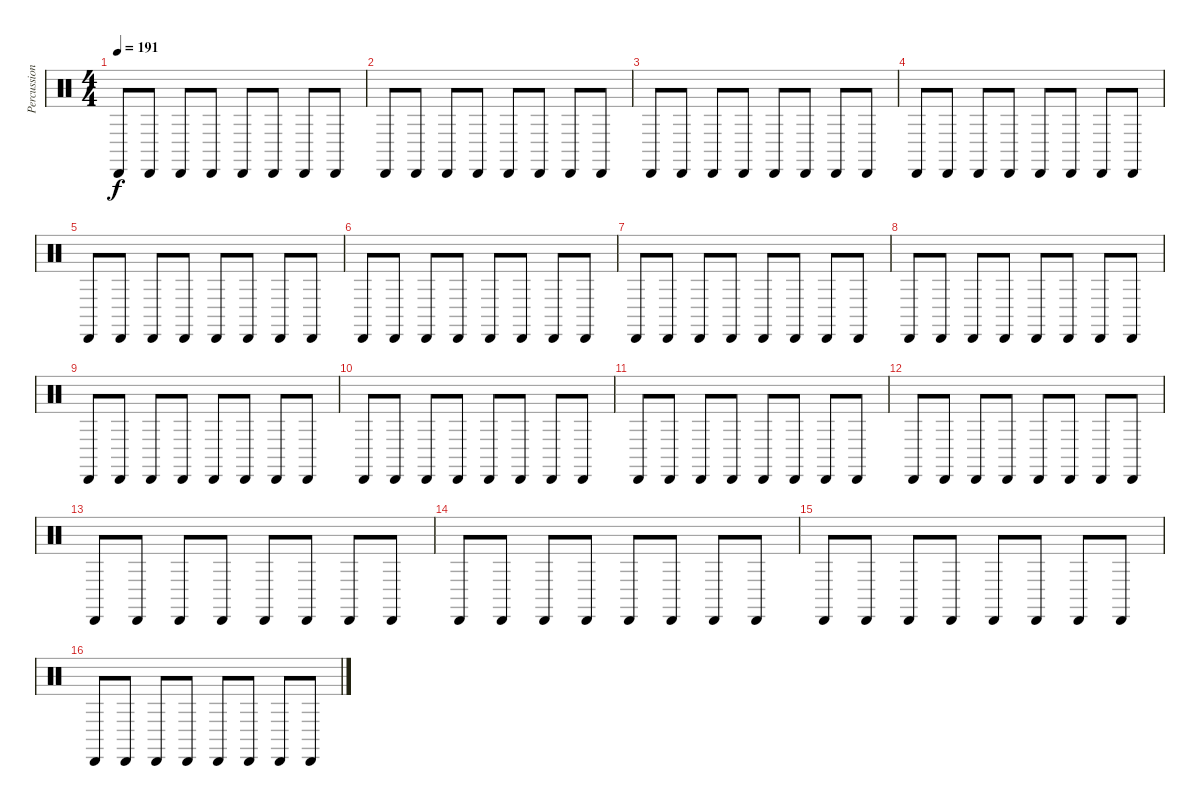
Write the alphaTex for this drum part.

\track ("Percussion" "Percussion") {instrument percussion}
\staff {score}
\articulation defaults
\ts (4 4)
\tempo 191
\clef neutral
\ks c "Cabasa (hit)".8{dy f} "Cabasa (hit)".8 "Cabasa (hit)".8 "Cabasa (hit)".8 "Cabasa (hit)".8 "Cabasa (hit)".8 "Cabasa (hit)".8 "Cabasa (hit)".8
|
"Cabasa (hit)".8 "Cabasa (hit)".8 "Cabasa (hit)".8 "Cabasa (hit)".8 "Cabasa (hit)".8 "Cabasa (hit)".8 "Cabasa (hit)".8 "Cabasa (hit)".8 |
"Cabasa (hit)".8 "Cabasa (hit)".8 "Cabasa (hit)".8 "Cabasa (hit)".8 "Cabasa (hit)".8 "Cabasa (hit)".8 "Cabasa (hit)".8 "Cabasa (hit)".8 |
"Cabasa (hit)".8 "Cabasa (hit)".8 "Cabasa (hit)".8 "Cabasa (hit)".8 "Cabasa (hit)".8 "Cabasa (hit)".8 "Cabasa (hit)".8 "Cabasa (hit)".8 |
"Cabasa (hit)".8 "Cabasa (hit)".8 "Cabasa (hit)".8 "Cabasa (hit)".8 "Cabasa (hit)".8 "Cabasa (hit)".8 "Cabasa (hit)".8 "Cabasa (hit)".8 |
"Cabasa (hit)".8 "Cabasa (hit)".8 "Cabasa (hit)".8 "Cabasa (hit)".8 "Cabasa (hit)".8 "Cabasa (hit)".8 "Cabasa (hit)".8 "Cabasa (hit)".8 |
"Cabasa (hit)".8 "Cabasa (hit)".8 "Cabasa (hit)".8 "Cabasa (hit)".8 "Cabasa (hit)".8 "Cabasa (hit)".8 "Cabasa (hit)".8 "Cabasa (hit)".8 |
"Cabasa (hit)".8 "Cabasa (hit)".8 "Cabasa (hit)".8 "Cabasa (hit)".8 "Cabasa (hit)".8 "Cabasa (hit)".8 "Cabasa (hit)".8 "Cabasa (hit)".8 |
"Cabasa (hit)".8 "Cabasa (hit)".8 "Cabasa (hit)".8 "Cabasa (hit)".8 "Cabasa (hit)".8 "Cabasa (hit)".8 "Cabasa (hit)".8 "Cabasa (hit)".8 |
"Cabasa (hit)".8 "Cabasa (hit)".8 "Cabasa (hit)".8 "Cabasa (hit)".8 "Cabasa (hit)".8 "Cabasa (hit)".8 "Cabasa (hit)".8 "Cabasa (hit)".8 |
"Cabasa (hit)".8 "Cabasa (hit)".8 "Cabasa (hit)".8 "Cabasa (hit)".8 "Cabasa (hit)".8 "Cabasa (hit)".8 "Cabasa (hit)".8 "Cabasa (hit)".8 |
"Cabasa (hit)".8 "Cabasa (hit)".8 "Cabasa (hit)".8 "Cabasa (hit)".8 "Cabasa (hit)".8 "Cabasa (hit)".8 "Cabasa (hit)".8 "Cabasa (hit)".8 |
"Cabasa (hit)".8 "Cabasa (hit)".8 "Cabasa (hit)".8 "Cabasa (hit)".8 "Cabasa (hit)".8 "Cabasa (hit)".8 "Cabasa (hit)".8 "Cabasa (hit)".8 |
"Cabasa (hit)".8 "Cabasa (hit)".8 "Cabasa (hit)".8 "Cabasa (hit)".8 "Cabasa (hit)".8 "Cabasa (hit)".8 "Cabasa (hit)".8 "Cabasa (hit)".8 |
"Cabasa (hit)".8{volume 0} "Cabasa (hit)".8 "Cabasa (hit)".8 "Cabasa (hit)".8 "Cabasa (hit)".8 "Cabasa (hit)".8 "Cabasa (hit)".8 "Cabasa (hit)".8 |
"Cabasa (hit)".8 "Cabasa (hit)".8 "Cabasa (hit)".8 "Cabasa (hit)".8 "Cabasa (hit)".8 "Cabasa (hit)".8 "Cabasa (hit)".8 "Cabasa (hit)".8
